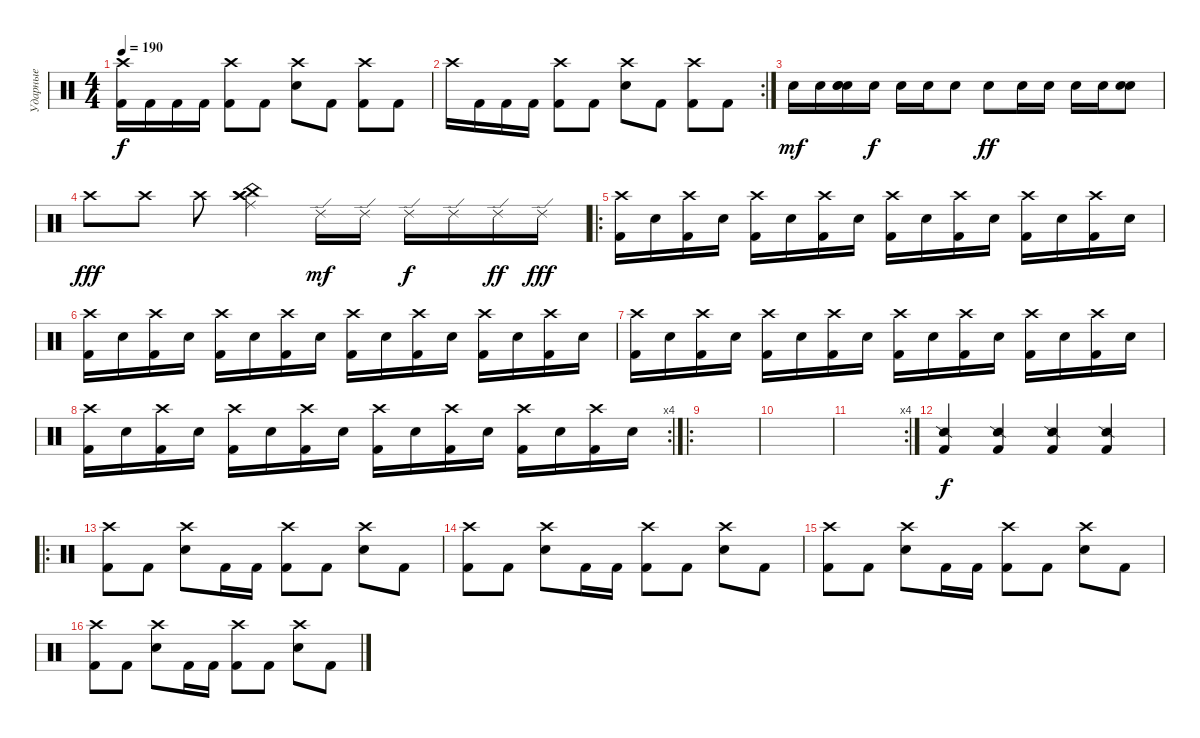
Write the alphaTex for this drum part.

\track ("Ударные" "Ударные") {instrument percussion}
\staff {score}
\articulation defaults
\ts (4 4)
\tempo 190
\clef neutral
\ks c
("Kick (hit) 2" "Crash high (hit)").16{dy f} "Kick (hit) 2".16 "Kick (hit) 2".16 "Kick (hit) 2".16 ("Kick (hit) 2" "Crash high (hit)").8 "Kick (hit) 2".8 ("Electric Snare (hit)" "Crash high (hit)").8 "Kick (hit) 2".8 ("Kick (hit) 2" "Crash high (hit)").8 "Kick (hit) 2".8 |
\rc 2 "Crash high (hit)".16 "Kick (hit) 2".16 "Kick (hit) 2".16 "Kick (hit) 2".16
("Kick (hit) 2" "Crash high (hit)").8 "Kick (hit) 2".8 ("Electric Snare (hit)" "Crash high (hit)").8 "Kick (hit) 2".8 ("Kick (hit) 2" "Crash high (hit)").8 "Kick (hit) 2".8 |
"Electric Snare (hit)".16{dy mf} "Electric Snare (hit)".16 ("Electric Snare (hit)" "Electric Snare (hit)" "Electric Snare (hit)").16 "Electric Snare (hit)".16{dy f} "Electric Snare (hit)".16 "Electric Snare (hit)".16 "Electric Snare (hit)".8 "Electric Snare (hit)".8{dy ff} "Electric Snare (hit)".16 "Electric Snare (hit)".16 "Electric Snare (hit)".16 "Electric Snare (hit)".16 ("Electric Snare (hit)" "Electric Snare (hit)").8 |
"Crash high (hit)".8{dy fff} "Crash high (hit)".8 "Crash high (hit)".8 ("Crash high (hit)" "China (hit)" "Ride (middle)" "Crash high (hit)").4 "Ride (edge) 2".16{dy mf} "Ride (edge) 2".16 "Ride (edge) 2".16{dy f} "Ride (edge) 2".16 "Ride (edge) 2".16{dy ff} "Ride (edge) 2".16{dy fff} |
\ro
("Kick (hit) 2" "Crash high (hit)").16 "Electric Snare (hit)".16 ("Kick (hit) 2" "Crash high (hit)").16 "Electric Snare (hit)".16 ("Kick (hit) 2" "Crash high (hit)").16 "Electric Snare (hit)".16 ("Kick (hit) 2" "Crash high (hit)").16 "Electric Snare (hit)".16 ("Kick (hit) 2" "Crash high (hit)").16 "Electric Snare (hit)".16 ("Kick (hit) 2" "Crash high (hit)").16 "Electric Snare (hit)".16 ("Kick (hit) 2" "Crash high (hit)").16 "Electric Snare (hit)".16 ("Kick (hit) 2" "Crash high (hit)").16 "Electric Snare (hit)".16 |
("Kick (hit) 2" "Crash high (hit)").16 "Electric Snare (hit)".16 ("Kick (hit) 2" "Crash high (hit)").16 "Electric Snare (hit)".16 ("Kick (hit) 2" "Crash high (hit)").16 "Electric Snare (hit)".16 ("Kick (hit) 2" "Crash high (hit)").16 "Electric Snare (hit)".16 ("Kick (hit) 2" "Crash high (hit)").16 "Electric Snare (hit)".16 ("Kick (hit) 2" "Crash high (hit)").16 "Electric Snare (hit)".16 ("Kick (hit) 2" "Crash high (hit)").16 "Electric Snare (hit)".16 ("Kick (hit) 2" "Crash high (hit)").16 "Electric Snare (hit)".16 |
("Kick (hit) 2" "Crash high (hit)").16 "Electric Snare (hit)".16 ("Kick (hit) 2" "Crash high (hit)").16 "Electric Snare (hit)".16 ("Kick (hit) 2" "Crash high (hit)").16 "Electric Snare (hit)".16 ("Kick (hit) 2" "Crash high (hit)").16 "Electric Snare (hit)".16 ("Kick (hit) 2" "Crash high (hit)").16 "Electric Snare (hit)".16 ("Kick (hit) 2" "Crash high (hit)").16 "Electric Snare (hit)".16 ("Kick (hit) 2" "Crash high (hit)").16 "Electric Snare (hit)".16 ("Kick (hit) 2" "Crash high (hit)").16 "Electric Snare (hit)".16 |
\rc 4
("Kick (hit) 2" "Crash high (hit)").16 "Electric Snare (hit)".16 ("Kick (hit) 2" "Crash high (hit)").16 "Electric Snare (hit)".16 ("Kick (hit) 2" "Crash high (hit)").16 "Electric Snare (hit)".16 ("Kick (hit) 2" "Crash high (hit)").16 "Electric Snare (hit)".16 ("Kick (hit) 2" "Crash high (hit)").16 "Electric Snare (hit)".16 ("Kick (hit) 2" "Crash high (hit)").16 "Electric Snare (hit)".16 ("Kick (hit) 2" "Crash high (hit)").16 "Electric Snare (hit)".16 ("Kick (hit) 2" "Crash high (hit)").16 "Electric Snare (hit)".16 |
\ro
|
|
\rc 4
|
("Kick (hit) 2" "Snare (side stick) 2").4{dy f} ("Kick (hit) 2" "Snare (side stick) 2").4 ("Kick (hit) 2" "Snare (side stick) 2").4 ("Kick (hit) 2" "Snare (side stick) 2").4 |
\ro
("Crash high (hit)" "Kick (hit) 2").8 "Kick (hit) 2".8 ("Electric Snare (hit)" "Crash high (hit)").8 "Kick (hit) 2".16 "Kick (hit) 2".16 ("Kick (hit) 2" "Crash high (hit)").8 "Kick (hit) 2".8 ("Electric Snare (hit)" "Crash high (hit)").8 "Kick (hit) 2".8 |
("Crash high (hit)" "Kick (hit) 2").8 "Kick (hit) 2".8 ("Electric Snare (hit)" "Crash high (hit)").8 "Kick (hit) 2".16 "Kick (hit) 2".16 ("Kick (hit) 2" "Crash high (hit)").8 "Kick (hit) 2".8 ("Electric Snare (hit)" "Crash high (hit)").8 "Kick (hit) 2".8 |
("Crash high (hit)" "Kick (hit) 2").8 "Kick (hit) 2".8 ("Electric Snare (hit)" "Crash high (hit)").8 "Kick (hit) 2".16 "Kick (hit) 2".16 ("Kick (hit) 2" "Crash high (hit)").8 "Kick (hit) 2".8 ("Electric Snare (hit)" "Crash high (hit)").8 "Kick (hit) 2".8 |
("Crash high (hit)" "Kick (hit) 2").8 "Kick (hit) 2".8 ("Electric Snare (hit)" "Crash high (hit)").8 "Kick (hit) 2".16 "Kick (hit) 2".16 ("Kick (hit) 2" "Crash high (hit)").8 "Kick (hit) 2".8 ("Electric Snare (hit)" "Crash high (hit)").8 "Kick (hit) 2".8
